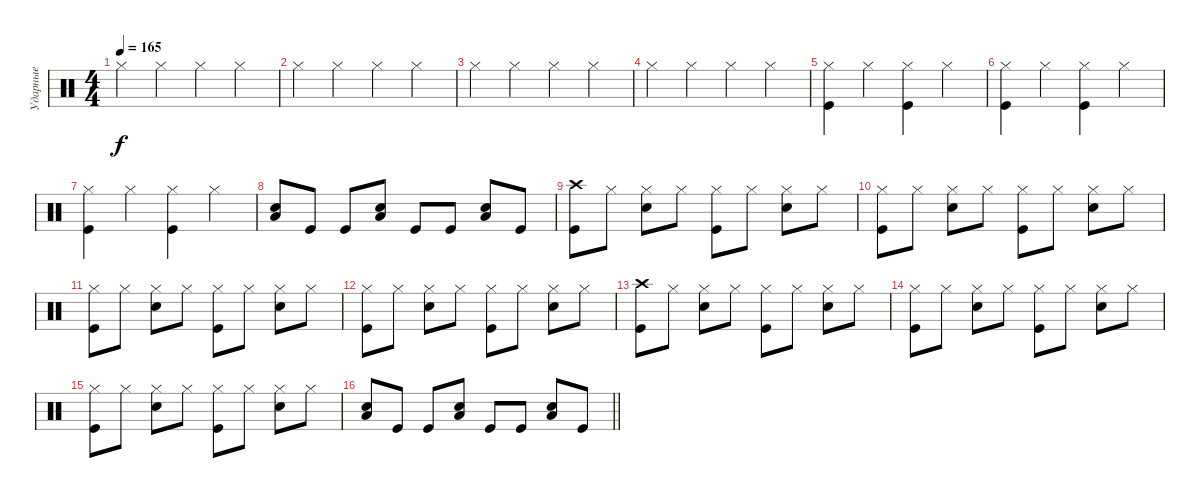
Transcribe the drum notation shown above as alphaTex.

\track ("Ударные" "Ударные") {instrument percussion}
\staff {score}
\articulation defaults
\ts (4 4)
\tempo 165
\clef neutral
\ks c "Hi-Hat (closed)".4{dy f} "Hi-Hat (closed)".4 "Hi-Hat (closed)".4 "Hi-Hat (closed)".4
|
"Hi-Hat (closed)".4 "Hi-Hat (closed)".4 "Hi-Hat (closed)".4 "Hi-Hat (closed)".4 |
"Hi-Hat (closed)".4 "Hi-Hat (closed)".4 "Hi-Hat (closed)".4 "Hi-Hat (closed)".4 |
"Hi-Hat (closed)".4 "Hi-Hat (closed)".4 "Hi-Hat (closed)".4 "Hi-Hat (closed)".4 |
("Hi-Hat (closed)" "Kick (hit)").4 "Hi-Hat (closed)".4 ("Hi-Hat (closed)" "Kick (hit)").4 "Hi-Hat (closed)".4 |
("Hi-Hat (closed)" "Kick (hit)").4 "Hi-Hat (closed)".4 ("Hi-Hat (closed)" "Kick (hit)").4 "Hi-Hat (closed)".4 |
("Hi-Hat (closed)" "Kick (hit)").4 "Hi-Hat (closed)".4 ("Hi-Hat (closed)" "Kick (hit)").4 "Hi-Hat (closed)".4 |
("Snare (hit) 2" "Low Floor Tom (hit)").8 "Kick (hit)".8 "Kick (hit)".8 ("Snare (hit) 2" "Low Floor Tom (hit)").8 "Kick (hit)".8 "Kick (hit)".8 ("Snare (hit) 2" "Low Floor Tom (hit)").8 "Kick (hit)".8 |
("Crash high (hit)" "Kick (hit)").8 "Hi-Hat (closed)".8 ("Hi-Hat (closed)" "Snare (hit) 2").8 "Hi-Hat (closed)".8 ("Hi-Hat (closed)" "Kick (hit)").8 "Hi-Hat (closed)".8 ("Hi-Hat (closed)" "Snare (hit) 2").8 "Hi-Hat (closed)".8 |
("Hi-Hat (closed)" "Kick (hit)").8 "Hi-Hat (closed)".8 ("Hi-Hat (closed)" "Snare (hit) 2").8 "Hi-Hat (closed)".8 ("Hi-Hat (closed)" "Kick (hit)").8 "Hi-Hat (closed)".8 ("Hi-Hat (closed)" "Snare (hit) 2").8 "Hi-Hat (closed)".8 |
("Hi-Hat (closed)" "Kick (hit)").8 "Hi-Hat (closed)".8 ("Hi-Hat (closed)" "Snare (hit) 2").8 "Hi-Hat (closed)".8 ("Hi-Hat (closed)" "Kick (hit)").8 "Hi-Hat (closed)".8 ("Hi-Hat (closed)" "Snare (hit) 2").8 "Hi-Hat (closed)".8 |
("Hi-Hat (closed)" "Kick (hit)").8 "Hi-Hat (closed)".8 ("Hi-Hat (closed)" "Snare (hit) 2").8 "Hi-Hat (closed)".8 ("Hi-Hat (closed)" "Kick (hit)").8 "Hi-Hat (closed)".8 ("Hi-Hat (closed)" "Snare (hit) 2").8 "Hi-Hat (closed)".8 |
("Crash high (hit)" "Kick (hit)").8 "Hi-Hat (closed)".8 ("Hi-Hat (closed)" "Snare (hit) 2").8 "Hi-Hat (closed)".8 ("Hi-Hat (closed)" "Kick (hit)").8 "Hi-Hat (closed)".8 ("Hi-Hat (closed)" "Snare (hit) 2").8 "Hi-Hat (closed)".8 |
("Hi-Hat (closed)" "Kick (hit)").8 "Hi-Hat (closed)".8 ("Hi-Hat (closed)" "Snare (hit) 2").8 "Hi-Hat (closed)".8 ("Hi-Hat (closed)" "Kick (hit)").8 "Hi-Hat (closed)".8 ("Hi-Hat (closed)" "Snare (hit) 2").8 "Hi-Hat (closed)".8 |
("Hi-Hat (closed)" "Kick (hit)").8 "Hi-Hat (closed)".8 ("Hi-Hat (closed)" "Snare (hit) 2").8 "Hi-Hat (closed)".8 ("Hi-Hat (closed)" "Kick (hit)").8 "Hi-Hat (closed)".8 ("Hi-Hat (closed)" "Snare (hit) 2").8 "Hi-Hat (closed)".8 |
\barLineRight lightlight
("Snare (hit) 2" "Low Floor Tom (hit)").8 "Kick (hit)".8 "Kick (hit)".8 ("Snare (hit) 2" "Low Floor Tom (hit)").8 "Kick (hit)".8 "Kick (hit)".8 ("Snare (hit) 2" "Low Floor Tom (hit)").8 "Kick (hit)".8
